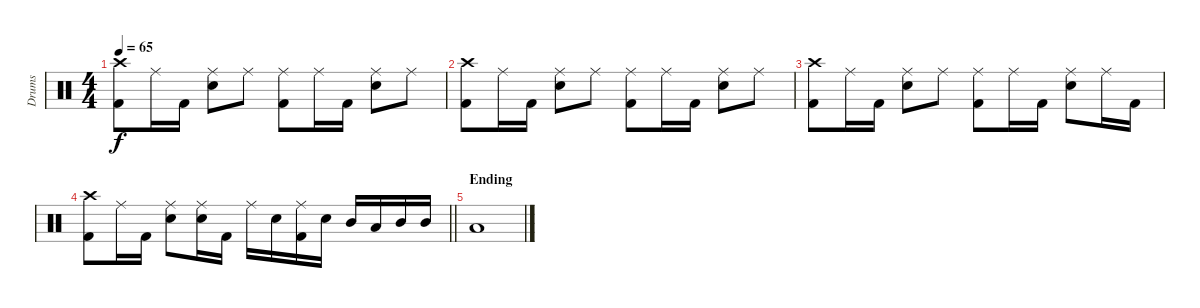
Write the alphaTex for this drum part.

\track ("Drums" "Drums") {instrument percussion}
\staff {score}
\articulation defaults
\ts (4 4)
\tempo 65
\clef neutral
\ks c
("Crash high (hit)" "Kick (hit) 2").8{dy f} "Ride (middle)".16 "Kick (hit) 2".16 ("Ride (middle)" "Electric Snare (hit)").8 "Ride (middle)".8 ("Ride (middle)" "Kick (hit) 2").8 "Ride (middle)".16 "Kick (hit) 2".16 ("Ride (middle)" "Electric Snare (hit)").8 "Ride (middle)".8 |
("Crash high (hit)" "Kick (hit) 2").8 "Ride (middle)".16 "Kick (hit) 2".16 ("Ride (middle)" "Electric Snare (hit)").8 "Ride (middle)".8 ("Ride (middle)" "Kick (hit) 2").8 "Ride (middle)".16 "Kick (hit) 2".16 ("Ride (middle)" "Electric Snare (hit)").8 "Ride (middle)".8 |
("Crash high (hit)" "Kick (hit) 2").8 "Ride (middle)".16 "Kick (hit) 2".16 ("Ride (middle)" "Electric Snare (hit)").8 "Ride (middle)".8 ("Ride (middle)" "Kick (hit) 2").8 "Ride (middle)".16 "Kick (hit) 2".16 ("Ride (middle)" "Electric Snare (hit)").8 "Ride (middle)".16 "Kick (hit) 2".16 |
\barLineRight lightlight
("Crash high (hit)" "Kick (hit) 2").8 "Ride (middle)".16 "Kick (hit) 2".16 ("Ride (middle)" "Electric Snare (hit)").8 ("Ride (middle)" "Electric Snare (hit)").16 "Kick (hit) 2".16 "Ride (middle)".16 "Electric Snare (hit)".16 ("Ride (middle)" "Kick (hit) 2").16 "Electric Snare (hit)".16 "Mid Tom (hit)".16 "Low Tom (hit)".16 "Mid Tom (hit)".16 "Mid Tom (hit)".16 |
\section ("" "Ending")
"Low Tom (hit)".1
